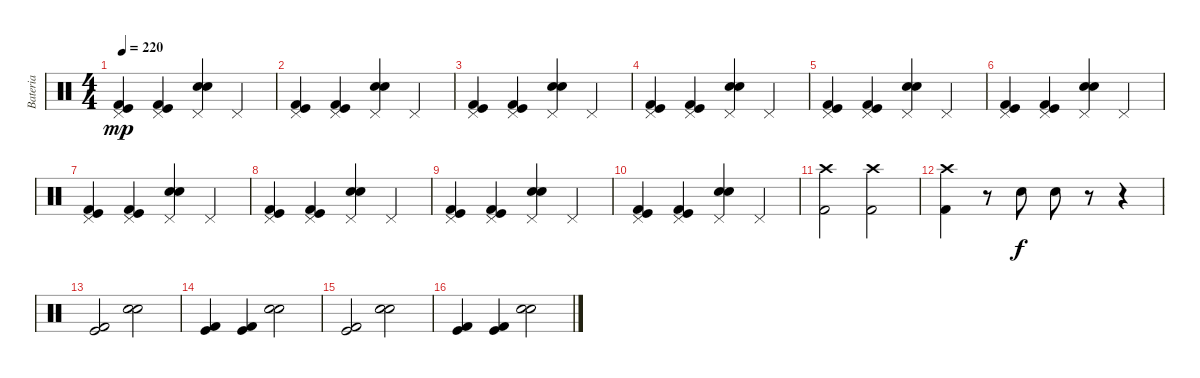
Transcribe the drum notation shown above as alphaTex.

\track ("Bateria" "Bateria") {instrument percussion}
\staff {score}
\articulation defaults
\ts (4 4)
\tempo 220
\clef neutral
\ks c
("Pedal Hi-Hat (hit)" "Kick (hit) 2" "Kick (hit)").4{dy mp} ("Pedal Hi-Hat (hit)" "Kick (hit) 2" "Kick (hit)").4 ("Pedal Hi-Hat (hit)" "Snare (hit) 2" "Electric Snare (hit)").4 "Pedal Hi-Hat (hit)".4 |
("Pedal Hi-Hat (hit)" "Kick (hit) 2" "Kick (hit)").4 ("Pedal Hi-Hat (hit)" "Kick (hit) 2" "Kick (hit)").4 ("Pedal Hi-Hat (hit)" "Snare (hit) 2" "Electric Snare (hit)").4 "Pedal Hi-Hat (hit)".4 |
("Pedal Hi-Hat (hit)" "Kick (hit) 2" "Kick (hit)").4 ("Pedal Hi-Hat (hit)" "Kick (hit) 2" "Kick (hit)").4 ("Pedal Hi-Hat (hit)" "Snare (hit) 2" "Electric Snare (hit)").4 "Pedal Hi-Hat (hit)".4 |
("Pedal Hi-Hat (hit)" "Kick (hit) 2" "Kick (hit)").4 ("Pedal Hi-Hat (hit)" "Kick (hit) 2" "Kick (hit)").4 ("Pedal Hi-Hat (hit)" "Snare (hit) 2" "Electric Snare (hit)").4 "Pedal Hi-Hat (hit)".4 |
("Pedal Hi-Hat (hit)" "Kick (hit) 2" "Kick (hit)").4 ("Pedal Hi-Hat (hit)" "Kick (hit) 2" "Kick (hit)").4 ("Pedal Hi-Hat (hit)" "Snare (hit) 2" "Electric Snare (hit)").4 "Pedal Hi-Hat (hit)".4 |
("Pedal Hi-Hat (hit)" "Kick (hit) 2" "Kick (hit)").4 ("Pedal Hi-Hat (hit)" "Kick (hit) 2" "Kick (hit)").4 ("Pedal Hi-Hat (hit)" "Snare (hit) 2" "Electric Snare (hit)").4 "Pedal Hi-Hat (hit)".4 |
("Pedal Hi-Hat (hit)" "Kick (hit) 2" "Kick (hit)").4 ("Pedal Hi-Hat (hit)" "Kick (hit) 2" "Kick (hit)").4 ("Pedal Hi-Hat (hit)" "Snare (hit) 2" "Electric Snare (hit)").4 "Pedal Hi-Hat (hit)".4 |
("Pedal Hi-Hat (hit)" "Kick (hit) 2" "Kick (hit)").4 ("Pedal Hi-Hat (hit)" "Kick (hit) 2" "Kick (hit)").4 ("Pedal Hi-Hat (hit)" "Snare (hit) 2" "Electric Snare (hit)").4 "Pedal Hi-Hat (hit)".4 |
("Pedal Hi-Hat (hit)" "Kick (hit) 2" "Kick (hit)").4 ("Pedal Hi-Hat (hit)" "Kick (hit) 2" "Kick (hit)").4 ("Pedal Hi-Hat (hit)" "Snare (hit) 2" "Electric Snare (hit)").4 "Pedal Hi-Hat (hit)".4 |
("Pedal Hi-Hat (hit)" "Kick (hit) 2" "Kick (hit)").4 ("Pedal Hi-Hat (hit)" "Kick (hit) 2" "Kick (hit)").4 ("Pedal Hi-Hat (hit)" "Snare (hit) 2" "Electric Snare (hit)").4 "Pedal Hi-Hat (hit)".4 |
("Crash high (hit)" "Kick (hit) 2").2 ("Crash high (hit)" "Kick (hit) 2").2 |
("Crash high (hit)" "Kick (hit) 2").4 r.8 "Electric Snare (hit)".8{dy f} "Electric Snare (hit)".8 r.8 r.4 |
("Kick (hit)" "Kick (hit) 2").2 ("Electric Snare (hit)" "Snare (hit) 2").2 |
("Kick (hit) 2" "Kick (hit)").4 ("Kick (hit)" "Kick (hit) 2").4 ("Electric Snare (hit)" "Snare (hit) 2").2 |
("Kick (hit)" "Kick (hit) 2").2 ("Electric Snare (hit)" "Snare (hit) 2").2 |
("Kick (hit) 2" "Kick (hit)").4 ("Kick (hit)" "Kick (hit) 2").4 ("Electric Snare (hit)" "Snare (hit) 2").2
